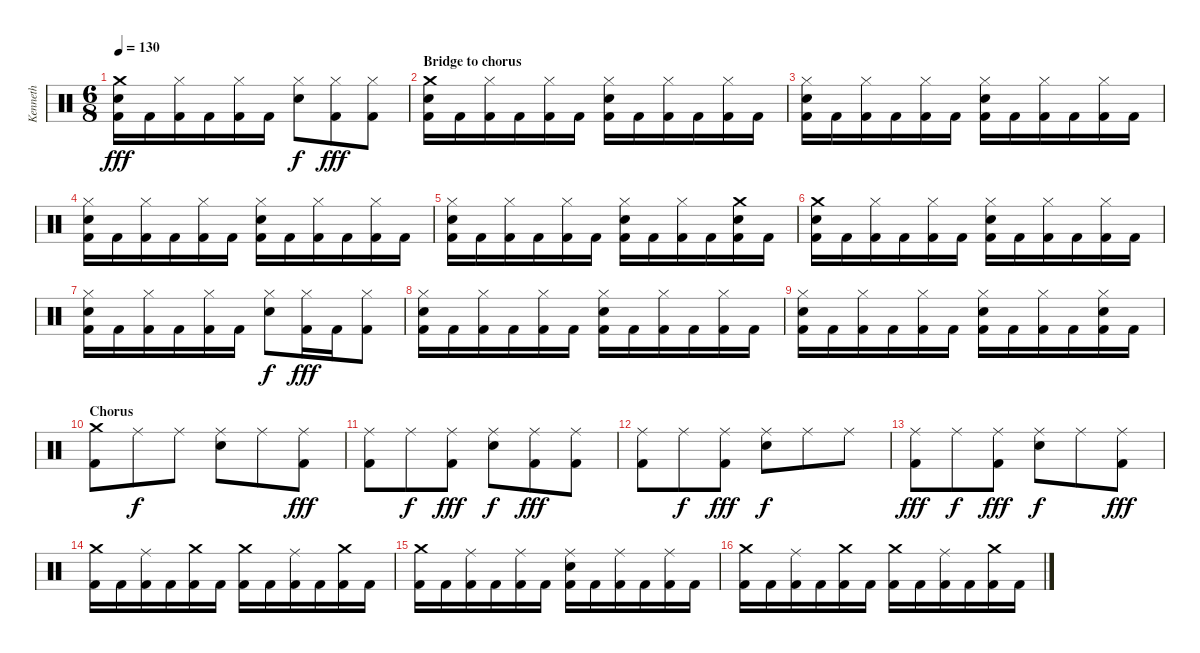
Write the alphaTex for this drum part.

\track ("Kenneth" "Kenneth") {instrument percussion}
\staff {score}
\articulation defaults
\ts (6 8)
\tempo 130
\clef neutral
\ks c
("Crash medium (hit)" "Electric Snare (hit)" "Kick (hit) 2").16{dy fff} "Kick (hit) 2".16 ("Hi-Hat (closed)" "Kick (hit) 2").16 "Kick (hit) 2".16 ("Hi-Hat (closed)" "Kick (hit) 2").16 "Kick (hit) 2".16 ("Hi-Hat (closed)" "Electric Snare (hit)").8{dy f} ("Hi-Hat (closed)" "Kick (hit) 2").8{dy fff} ("Hi-Hat (closed)" "Kick (hit) 2").8 |
\section ("" "Bridge to chorus")
("Crash medium (hit)" "Electric Snare (hit)" "Kick (hit) 2").16 "Kick (hit) 2".16 ("Hi-Hat (closed)" "Kick (hit) 2").16 "Kick (hit) 2".16 ("Hi-Hat (closed)" "Kick (hit) 2").16 "Kick (hit) 2".16 ("Hi-Hat (closed)" "Electric Snare (hit)" "Kick (hit) 2").16 "Kick (hit) 2".16 ("Hi-Hat (closed)" "Kick (hit) 2").16 "Kick (hit) 2".16 ("Hi-Hat (closed)" "Kick (hit) 2").16 "Kick (hit) 2".16 |
("Hi-Hat (closed)" "Electric Snare (hit)" "Kick (hit) 2").16 "Kick (hit) 2".16 ("Hi-Hat (closed)" "Kick (hit) 2").16 "Kick (hit) 2".16 ("Hi-Hat (closed)" "Kick (hit) 2").16 "Kick (hit) 2".16 ("Hi-Hat (closed)" "Electric Snare (hit)" "Kick (hit) 2").16 "Kick (hit) 2".16 ("Hi-Hat (closed)" "Kick (hit) 2").16 "Kick (hit) 2".16 ("Hi-Hat (closed)" "Kick (hit) 2").16 "Kick (hit) 2".16 |
("Hi-Hat (closed)" "Electric Snare (hit)" "Kick (hit) 2").16 "Kick (hit) 2".16 ("Hi-Hat (closed)" "Kick (hit) 2").16 "Kick (hit) 2".16 ("Hi-Hat (closed)" "Kick (hit) 2").16 "Kick (hit) 2".16 ("Hi-Hat (closed)" "Electric Snare (hit)" "Kick (hit) 2").16 "Kick (hit) 2".16 ("Hi-Hat (closed)" "Kick (hit) 2").16 "Kick (hit) 2".16 ("Hi-Hat (closed)" "Kick (hit) 2").16 "Kick (hit) 2".16 |
("Hi-Hat (closed)" "Electric Snare (hit)" "Kick (hit) 2").16 "Kick (hit) 2".16 ("Hi-Hat (closed)" "Kick (hit) 2").16 "Kick (hit) 2".16 ("Hi-Hat (closed)" "Kick (hit) 2").16 "Kick (hit) 2".16 ("Hi-Hat (closed)" "Electric Snare (hit)" "Kick (hit) 2").16 "Kick (hit) 2".16 ("Hi-Hat (closed)" "Kick (hit) 2").16 "Kick (hit) 2".16 ("Crash medium (hit)" "Electric Snare (hit)" "Kick (hit) 2").16 "Kick (hit) 2".16 |
("Crash medium (hit)" "Electric Snare (hit)" "Kick (hit) 2").16 "Kick (hit) 2".16 ("Hi-Hat (closed)" "Kick (hit) 2").16 "Kick (hit) 2".16 ("Hi-Hat (closed)" "Kick (hit) 2").16 "Kick (hit) 2".16 ("Hi-Hat (closed)" "Electric Snare (hit)" "Kick (hit) 2").16 "Kick (hit) 2".16 ("Hi-Hat (closed)" "Kick (hit) 2").16 "Kick (hit) 2".16 ("Hi-Hat (closed)" "Kick (hit) 2").16 "Kick (hit) 2".16 |
("Hi-Hat (closed)" "Electric Snare (hit)" "Kick (hit) 2").16 "Kick (hit) 2".16 ("Hi-Hat (closed)" "Kick (hit) 2").16 "Kick (hit) 2".16 ("Hi-Hat (closed)" "Kick (hit) 2").16 "Kick (hit) 2".16 ("Hi-Hat (closed)" "Electric Snare (hit)").8{dy f} ("Hi-Hat (closed)" "Kick (hit) 2").16{dy fff} "Kick (hit) 2".16 ("Hi-Hat (closed)" "Kick (hit) 2").8 |
("Hi-Hat (closed)" "Electric Snare (hit)" "Kick (hit) 2").16 "Kick (hit) 2".16 ("Hi-Hat (closed)" "Kick (hit) 2").16 "Kick (hit) 2".16 ("Hi-Hat (closed)" "Kick (hit) 2").16 "Kick (hit) 2".16 ("Hi-Hat (closed)" "Electric Snare (hit)" "Kick (hit) 2").16 "Kick (hit) 2".16 ("Hi-Hat (closed)" "Kick (hit) 2").16 "Kick (hit) 2".16 ("Hi-Hat (closed)" "Kick (hit) 2").16 "Kick (hit) 2".16 |
("Hi-Hat (closed)" "Electric Snare (hit)" "Kick (hit) 2").16 "Kick (hit) 2".16 ("Hi-Hat (closed)" "Kick (hit) 2").16 "Kick (hit) 2".16 ("Hi-Hat (closed)" "Kick (hit) 2").16 "Kick (hit) 2".16 ("Hi-Hat (closed)" "Electric Snare (hit)" "Kick (hit) 2").16 "Kick (hit) 2".16 ("Hi-Hat (closed)" "Kick (hit) 2").16 "Kick (hit) 2".16 ("Hi-Hat (closed)" "Electric Snare (hit)" "Kick (hit) 2").16 "Kick (hit) 2".16 |
\section ("" "Chorus")
("Crash medium (hit)" "Kick (hit) 2").8 "Ride (middle)".8{dy f} "Ride (middle)".8 ("Ride (middle)" "Electric Snare (hit)").8 "Ride (middle)".8 ("Ride (middle)" "Kick (hit) 2").8{dy fff} |
("Ride (middle)" "Kick (hit) 2").8 "Ride (middle)".8{dy f} ("Ride (middle)" "Kick (hit) 2").8{dy fff} ("Ride (middle)" "Electric Snare (hit)").8{dy f} ("Ride (middle)" "Kick (hit) 2").8{dy fff} ("Ride (middle)" "Kick (hit) 2").8 |
("Ride (middle)" "Kick (hit) 2").8 "Ride (middle)".8{dy f} ("Ride (middle)" "Kick (hit) 2").8{dy fff} ("Ride (middle)" "Electric Snare (hit)").8{dy f} "Ride (middle)".8 "Ride (middle)".8 |
("Ride (middle)" "Kick (hit) 2").8{dy fff} "Ride (middle)".8{dy f} ("Ride (middle)" "Kick (hit) 2").8{dy fff} ("Ride (middle)" "Electric Snare (hit)").8{dy f} "Ride (middle)".8 ("Ride (middle)" "Kick (hit) 2").8{dy fff} |
("Crash medium (hit)" "Kick (hit) 2").16 "Kick (hit) 2".16 ("Ride (middle)" "Kick (hit) 2").16 "Kick (hit) 2".16 ("Crash medium (hit)" "Kick (hit) 2").16 "Kick (hit) 2".16 ("Crash medium (hit)" "Kick (hit) 2").16 "Kick (hit) 2".16 ("Ride (middle)" "Kick (hit) 2").16 "Kick (hit) 2".16 ("Crash medium (hit)" "Kick (hit) 2").16 "Kick (hit) 2".16 |
("Crash medium (hit)" "Kick (hit) 2").16 "Kick (hit) 2".16 ("Ride (middle)" "Kick (hit) 2").16 "Kick (hit) 2".16 ("Ride (middle)" "Kick (hit) 2").16 "Kick (hit) 2".16 ("Ride (middle)" "Snare (hit) 2" "Kick (hit) 2").16 "Kick (hit) 2".16 ("Ride (middle)" "Kick (hit) 2").16 "Kick (hit) 2".16 ("Ride (middle)" "Kick (hit) 2").16 "Kick (hit) 2".16 |
("Crash medium (hit)" "Kick (hit) 2").16 "Kick (hit) 2".16 ("Ride (middle)" "Kick (hit) 2").16 "Kick (hit) 2".16 ("Crash medium (hit)" "Kick (hit) 2").16 "Kick (hit) 2".16 ("Crash medium (hit)" "Kick (hit) 2").16 "Kick (hit) 2".16 ("Ride (middle)" "Kick (hit) 2").16 "Kick (hit) 2".16 ("Crash medium (hit)" "Kick (hit) 2").16 "Kick (hit) 2".16
